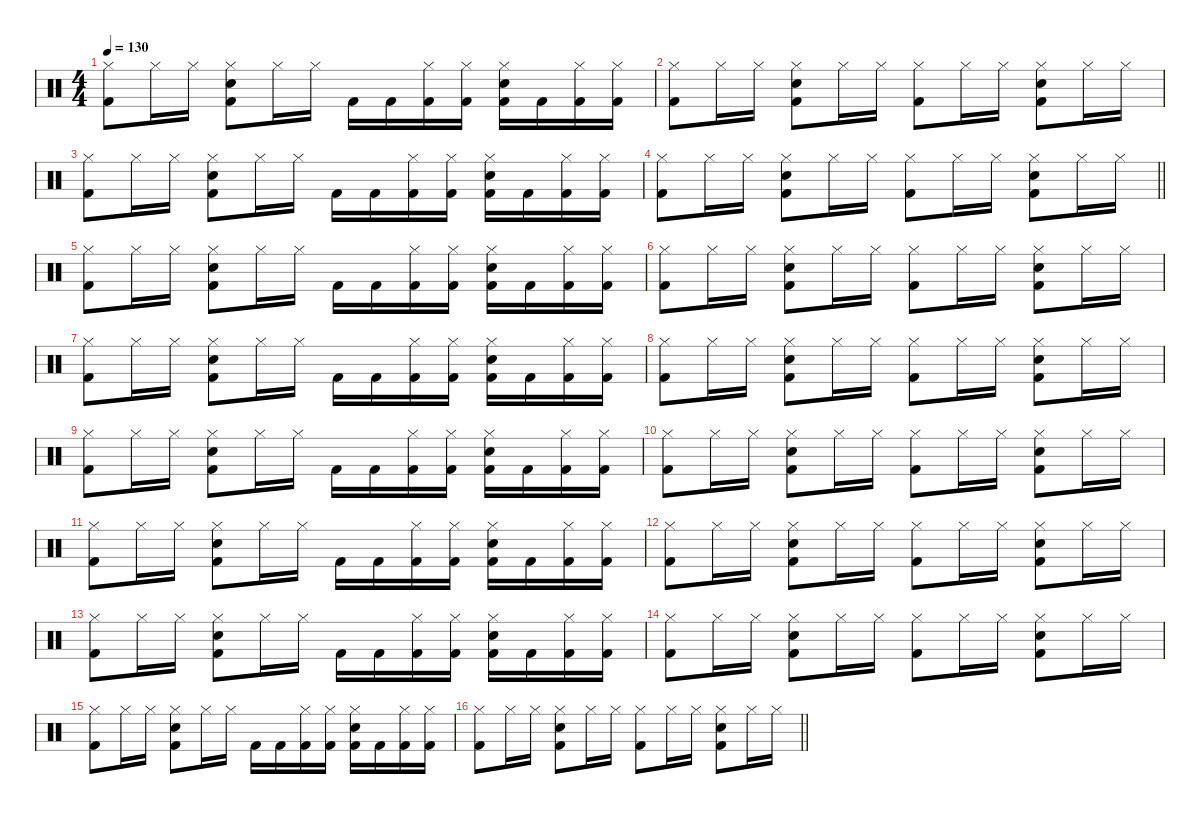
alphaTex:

\defaultSystemsLayout 4
\hideDynamics
\bracketExtendMode nobrackets
\singleTrackTrackNamePolicy hidden
\multiTrackTrackNamePolicy hidden
\otherSystemsTrackNameOrientation horizontal
\track ("Percussion" "drm.") {defaultSystemsLayout 4 instrument percussion}
\staff {score}
\articulation defaults
\ts (4 4)
\tempo 130
\clef neutral
\ks c
("Hi-Hat (closed)" "Kick (hit) 2").8{dy f beam Down} "Hi-Hat (closed)".16{beam Down} "Hi-Hat (closed)".16{beam Down} ("Hi-Hat (closed)" "Snare (hit) 2" "Kick (hit) 2").8{beam Down} "Hi-Hat (closed)".16{beam Down} "Hi-Hat (closed)".16{beam Down} "Kick (hit) 2".16{beam Down} "Kick (hit) 2".16{beam Down} ("Hi-Hat (closed)" "Kick (hit) 2").16{beam Down} ("Hi-Hat (closed)" "Kick (hit) 2").16{beam Down} ("Hi-Hat (closed)" "Snare (hit) 2" "Kick (hit) 2").16{beam Down} "Kick (hit) 2".16{beam Down} ("Hi-Hat (closed)" "Kick (hit) 2").16{beam Down} ("Hi-Hat (closed)" "Kick (hit) 2").16{beam Down} |
("Hi-Hat (closed)" "Kick (hit) 2").8{beam Down} "Hi-Hat (closed)".16{beam Down} "Hi-Hat (closed)".16{beam Down} ("Hi-Hat (closed)" "Snare (hit) 2" "Kick (hit) 2").8{beam Down} "Hi-Hat (closed)".16{beam Down} "Hi-Hat (closed)".16{beam Down} ("Hi-Hat (closed)" "Kick (hit) 2").8{beam Down} "Hi-Hat (closed)".16{beam Down} "Hi-Hat (closed)".16{beam Down} ("Hi-Hat (closed)" "Snare (hit) 2" "Kick (hit) 2").8{beam Down} "Hi-Hat (closed)".16{beam Down} "Hi-Hat (closed)".16{beam Down} |
("Hi-Hat (closed)" "Kick (hit) 2").8{beam Down} "Hi-Hat (closed)".16{beam Down} "Hi-Hat (closed)".16{beam Down} ("Hi-Hat (closed)" "Snare (hit) 2" "Kick (hit) 2").8{beam Down} "Hi-Hat (closed)".16{beam Down} "Hi-Hat (closed)".16{beam Down} "Kick (hit) 2".16{beam Down} "Kick (hit) 2".16{beam Down} ("Hi-Hat (closed)" "Kick (hit) 2").16{beam Down} ("Hi-Hat (closed)" "Kick (hit) 2").16{beam Down} ("Hi-Hat (closed)" "Snare (hit) 2" "Kick (hit) 2").16{beam Down} "Kick (hit) 2".16{beam Down} ("Hi-Hat (closed)" "Kick (hit) 2").16{beam Down} ("Hi-Hat (closed)" "Kick (hit) 2").16{beam Down} |
\barLineRight lightlight
("Hi-Hat (closed)" "Kick (hit) 2").8{beam Down} "Hi-Hat (closed)".16{beam Down} "Hi-Hat (closed)".16{beam Down} ("Hi-Hat (closed)" "Snare (hit) 2" "Kick (hit) 2").8{beam Down} "Hi-Hat (closed)".16{beam Down} "Hi-Hat (closed)".16{beam Down} ("Hi-Hat (closed)" "Kick (hit) 2").8{beam Down} "Hi-Hat (closed)".16{beam Down} "Hi-Hat (closed)".16{beam Down} ("Hi-Hat (closed)" "Snare (hit) 2" "Kick (hit) 2").8{beam Down} "Hi-Hat (closed)".16{beam Down} "Hi-Hat (closed)".16{beam Down} |
("Hi-Hat (closed)" "Kick (hit) 2").8{beam Down} "Hi-Hat (closed)".16{beam Down} "Hi-Hat (closed)".16{beam Down} ("Hi-Hat (closed)" "Snare (hit) 2" "Kick (hit) 2").8{beam Down} "Hi-Hat (closed)".16{beam Down} "Hi-Hat (closed)".16{beam Down} "Kick (hit) 2".16{beam Down} "Kick (hit) 2".16{beam Down} ("Hi-Hat (closed)" "Kick (hit) 2").16{beam Down} ("Hi-Hat (closed)" "Kick (hit) 2").16{beam Down} ("Hi-Hat (closed)" "Snare (hit) 2" "Kick (hit) 2").16{beam Down} "Kick (hit) 2".16{beam Down} ("Hi-Hat (closed)" "Kick (hit) 2").16{beam Down} ("Hi-Hat (closed)" "Kick (hit) 2").16{beam Down} |
("Hi-Hat (closed)" "Kick (hit) 2").8{beam Down} "Hi-Hat (closed)".16{beam Down} "Hi-Hat (closed)".16{beam Down} ("Hi-Hat (closed)" "Snare (hit) 2" "Kick (hit) 2").8{beam Down} "Hi-Hat (closed)".16{beam Down} "Hi-Hat (closed)".16{beam Down} ("Hi-Hat (closed)" "Kick (hit) 2").8{beam Down} "Hi-Hat (closed)".16{beam Down} "Hi-Hat (closed)".16{beam Down} ("Hi-Hat (closed)" "Snare (hit) 2" "Kick (hit) 2").8{beam Down} "Hi-Hat (closed)".16{beam Down} "Hi-Hat (closed)".16{beam Down} |
("Hi-Hat (closed)" "Kick (hit) 2").8{beam Down} "Hi-Hat (closed)".16{beam Down} "Hi-Hat (closed)".16{beam Down} ("Hi-Hat (closed)" "Snare (hit) 2" "Kick (hit) 2").8{beam Down} "Hi-Hat (closed)".16{beam Down} "Hi-Hat (closed)".16{beam Down} "Kick (hit) 2".16{beam Down} "Kick (hit) 2".16{beam Down} ("Hi-Hat (closed)" "Kick (hit) 2").16{beam Down} ("Hi-Hat (closed)" "Kick (hit) 2").16{beam Down} ("Hi-Hat (closed)" "Snare (hit) 2" "Kick (hit) 2").16{beam Down} "Kick (hit) 2".16{beam Down} ("Hi-Hat (closed)" "Kick (hit) 2").16{beam Down} ("Hi-Hat (closed)" "Kick (hit) 2").16{beam Down} |
("Hi-Hat (closed)" "Kick (hit) 2").8{beam Down} "Hi-Hat (closed)".16{beam Down} "Hi-Hat (closed)".16{beam Down} ("Hi-Hat (closed)" "Snare (hit) 2" "Kick (hit) 2").8{beam Down} "Hi-Hat (closed)".16{beam Down} "Hi-Hat (closed)".16{beam Down} ("Hi-Hat (closed)" "Kick (hit) 2").8{beam Down} "Hi-Hat (closed)".16{beam Down} "Hi-Hat (closed)".16{beam Down} ("Hi-Hat (closed)" "Snare (hit) 2" "Kick (hit) 2").8{beam Down} "Hi-Hat (closed)".16{beam Down} "Hi-Hat (closed)".16{beam Down} |
("Hi-Hat (closed)" "Kick (hit) 2").8{beam Down} "Hi-Hat (closed)".16{beam Down} "Hi-Hat (closed)".16{beam Down} ("Hi-Hat (closed)" "Snare (hit) 2" "Kick (hit) 2").8{beam Down} "Hi-Hat (closed)".16{beam Down} "Hi-Hat (closed)".16{beam Down} "Kick (hit) 2".16{beam Down} "Kick (hit) 2".16{beam Down} ("Hi-Hat (closed)" "Kick (hit) 2").16{beam Down} ("Hi-Hat (closed)" "Kick (hit) 2").16{beam Down} ("Hi-Hat (closed)" "Snare (hit) 2" "Kick (hit) 2").16{beam Down} "Kick (hit) 2".16{beam Down} ("Hi-Hat (closed)" "Kick (hit) 2").16{beam Down} ("Hi-Hat (closed)" "Kick (hit) 2").16{beam Down} |
("Hi-Hat (closed)" "Kick (hit) 2").8{beam Down} "Hi-Hat (closed)".16{beam Down} "Hi-Hat (closed)".16{beam Down} ("Hi-Hat (closed)" "Snare (hit) 2" "Kick (hit) 2").8{beam Down} "Hi-Hat (closed)".16{beam Down} "Hi-Hat (closed)".16{beam Down} ("Hi-Hat (closed)" "Kick (hit) 2").8{beam Down} "Hi-Hat (closed)".16{beam Down} "Hi-Hat (closed)".16{beam Down} ("Hi-Hat (closed)" "Snare (hit) 2" "Kick (hit) 2").8{beam Down} "Hi-Hat (closed)".16{beam Down} "Hi-Hat (closed)".16{beam Down} |
("Hi-Hat (closed)" "Kick (hit) 2").8{beam Down} "Hi-Hat (closed)".16{beam Down} "Hi-Hat (closed)".16{beam Down} ("Hi-Hat (closed)" "Snare (hit) 2" "Kick (hit) 2").8{beam Down} "Hi-Hat (closed)".16{beam Down} "Hi-Hat (closed)".16{beam Down} "Kick (hit) 2".16{beam Down} "Kick (hit) 2".16{beam Down} ("Hi-Hat (closed)" "Kick (hit) 2").16{beam Down} ("Hi-Hat (closed)" "Kick (hit) 2").16{beam Down} ("Hi-Hat (closed)" "Snare (hit) 2" "Kick (hit) 2").16{beam Down} "Kick (hit) 2".16{beam Down} ("Hi-Hat (closed)" "Kick (hit) 2").16{beam Down} ("Hi-Hat (closed)" "Kick (hit) 2").16{beam Down} |
("Hi-Hat (closed)" "Kick (hit) 2").8{beam Down} "Hi-Hat (closed)".16{beam Down} "Hi-Hat (closed)".16{beam Down} ("Hi-Hat (closed)" "Snare (hit) 2" "Kick (hit) 2").8{beam Down} "Hi-Hat (closed)".16{beam Down} "Hi-Hat (closed)".16{beam Down} ("Hi-Hat (closed)" "Kick (hit) 2").8{beam Down} "Hi-Hat (closed)".16{beam Down} "Hi-Hat (closed)".16{beam Down} ("Hi-Hat (closed)" "Snare (hit) 2" "Kick (hit) 2").8{beam Down} "Hi-Hat (closed)".16{beam Down} "Hi-Hat (closed)".16{beam Down} |
("Hi-Hat (closed)" "Kick (hit) 2").8{beam Down} "Hi-Hat (closed)".16{beam Down} "Hi-Hat (closed)".16{beam Down} ("Hi-Hat (closed)" "Snare (hit) 2" "Kick (hit) 2").8{beam Down} "Hi-Hat (closed)".16{beam Down} "Hi-Hat (closed)".16{beam Down} "Kick (hit) 2".16{beam Down} "Kick (hit) 2".16{beam Down} ("Hi-Hat (closed)" "Kick (hit) 2").16{beam Down} ("Hi-Hat (closed)" "Kick (hit) 2").16{beam Down} ("Hi-Hat (closed)" "Snare (hit) 2" "Kick (hit) 2").16{beam Down} "Kick (hit) 2".16{beam Down} ("Hi-Hat (closed)" "Kick (hit) 2").16{beam Down} ("Hi-Hat (closed)" "Kick (hit) 2").16{beam Down} |
("Hi-Hat (closed)" "Kick (hit) 2").8{beam Down} "Hi-Hat (closed)".16{beam Down} "Hi-Hat (closed)".16{beam Down} ("Hi-Hat (closed)" "Snare (hit) 2" "Kick (hit) 2").8{beam Down} "Hi-Hat (closed)".16{beam Down} "Hi-Hat (closed)".16{beam Down} ("Hi-Hat (closed)" "Kick (hit) 2").8{beam Down} "Hi-Hat (closed)".16{beam Down} "Hi-Hat (closed)".16{beam Down} ("Hi-Hat (closed)" "Snare (hit) 2" "Kick (hit) 2").8{beam Down} "Hi-Hat (closed)".16{beam Down} "Hi-Hat (closed)".16{beam Down} |
("Hi-Hat (closed)" "Kick (hit) 2").8{beam Down} "Hi-Hat (closed)".16{beam Down} "Hi-Hat (closed)".16{beam Down} ("Hi-Hat (closed)" "Snare (hit) 2" "Kick (hit) 2").8{beam Down} "Hi-Hat (closed)".16{beam Down} "Hi-Hat (closed)".16{beam Down} "Kick (hit) 2".16{beam Down} "Kick (hit) 2".16{beam Down} ("Hi-Hat (closed)" "Kick (hit) 2").16{beam Down} ("Hi-Hat (closed)" "Kick (hit) 2").16{beam Down} ("Hi-Hat (closed)" "Snare (hit) 2" "Kick (hit) 2").16{beam Down} "Kick (hit) 2".16{beam Down} ("Hi-Hat (closed)" "Kick (hit) 2").16{beam Down} ("Hi-Hat (closed)" "Kick (hit) 2").16{beam Down} |
\barLineRight lightlight
("Hi-Hat (closed)" "Kick (hit) 2").8{beam Down} "Hi-Hat (closed)".16{beam Down} "Hi-Hat (closed)".16{beam Down} ("Hi-Hat (closed)" "Snare (hit) 2" "Kick (hit) 2").8{beam Down} "Hi-Hat (closed)".16{beam Down} "Hi-Hat (closed)".16{beam Down} ("Hi-Hat (closed)" "Kick (hit) 2").8{beam Down} "Hi-Hat (closed)".16{beam Down} "Hi-Hat (closed)".16{beam Down} ("Hi-Hat (closed)" "Snare (hit) 2" "Kick (hit) 2").8{beam Down} "Hi-Hat (closed)".16{beam Down} "Hi-Hat (closed)".16{beam Down}
